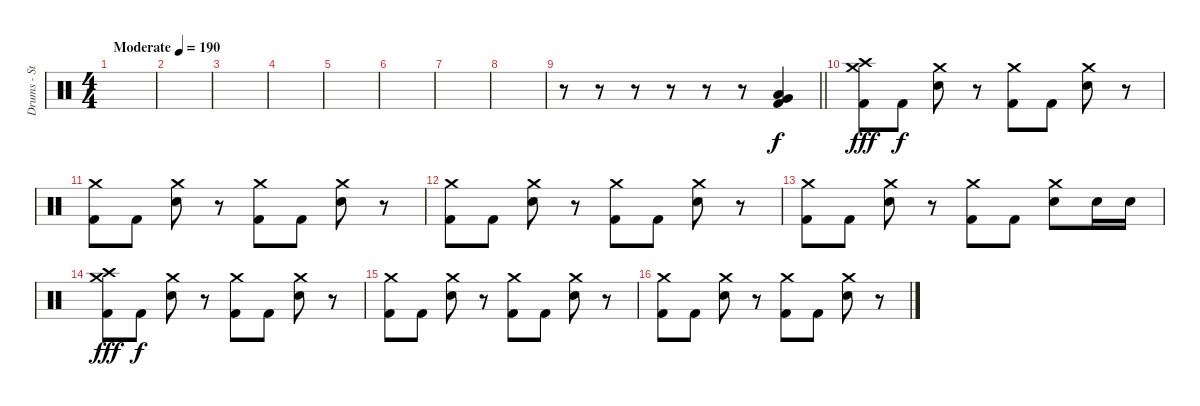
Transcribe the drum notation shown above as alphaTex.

\track ("Drums - Stevo 32" "Drums - St") {instrument percussion}
\staff {score}
\articulation defaults
\ts (4 4)
\tempo (190 "Moderate")
\clef neutral
\ks c
|
|
|
|
|
|
|
|
\barLineRight lightlight
r.8 r.8 r.8 r.8 r.8 r.8 ("Low Floor Tom (hit)" "Very Low Tom (hit)" "Kick (hit) 2").4 |
("Crash high (hit)" "Crash medium (hit)" "Kick (hit) 2").8{dy fff} "Kick (hit) 2".8{dy f} ("Crash medium (hit)" "Electric Snare (hit)").8 r.8 ("Crash medium (hit)" "Kick (hit) 2").8 "Kick (hit) 2".8 ("Crash medium (hit)" "Electric Snare (hit)").8 r.8 |
("Crash medium (hit)" "Kick (hit) 2").8 "Kick (hit) 2".8 ("Crash medium (hit)" "Electric Snare (hit)").8 r.8 ("Crash medium (hit)" "Kick (hit) 2").8 "Kick (hit) 2".8 ("Crash medium (hit)" "Electric Snare (hit)").8 r.8 |
("Crash medium (hit)" "Kick (hit) 2").8 "Kick (hit) 2".8 ("Crash medium (hit)" "Electric Snare (hit)").8 r.8 ("Crash medium (hit)" "Kick (hit) 2").8 "Kick (hit) 2".8 ("Crash medium (hit)" "Electric Snare (hit)").8 r.8 |
("Crash medium (hit)" "Kick (hit) 2").8 "Kick (hit) 2".8 ("Crash medium (hit)" "Electric Snare (hit)").8 r.8 ("Crash medium (hit)" "Kick (hit) 2").8 "Kick (hit) 2".8 ("Crash medium (hit)" "Electric Snare (hit)").8 "Electric Snare (hit)".16 "Electric Snare (hit)".16 |
("Crash high (hit)" "Crash medium (hit)" "Kick (hit) 2").8{dy fff} "Kick (hit) 2".8{dy f} ("Crash medium (hit)" "Electric Snare (hit)").8 r.8 ("Crash medium (hit)" "Kick (hit) 2").8 "Kick (hit) 2".8 ("Crash medium (hit)" "Electric Snare (hit)").8 r.8 |
("Crash medium (hit)" "Kick (hit) 2").8 "Kick (hit) 2".8 ("Crash medium (hit)" "Electric Snare (hit)").8 r.8 ("Crash medium (hit)" "Kick (hit) 2").8 "Kick (hit) 2".8 ("Crash medium (hit)" "Electric Snare (hit)").8 r.8 |
("Crash medium (hit)" "Kick (hit) 2").8 "Kick (hit) 2".8 ("Crash medium (hit)" "Electric Snare (hit)").8 r.8 ("Crash medium (hit)" "Kick (hit) 2").8 "Kick (hit) 2".8 ("Crash medium (hit)" "Electric Snare (hit)").8 r.8
